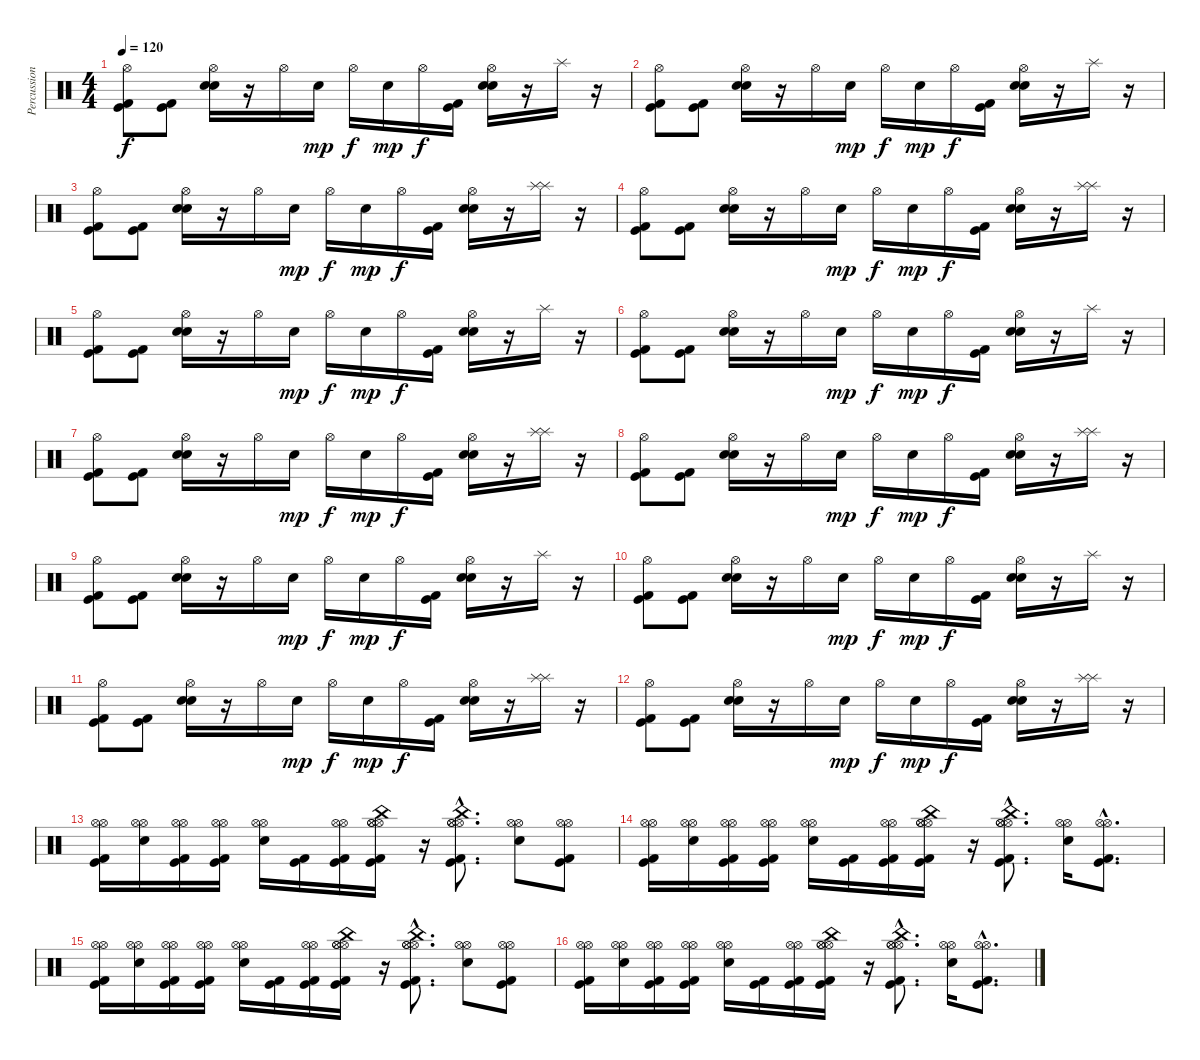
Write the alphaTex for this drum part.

\track ("Percussions" "Percussion") {instrument percussion}
\staff {score}
\articulation defaults
\ts (4 4)
\tempo 120
\clef neutral
\ks c
("Hi-Hat (open)" "Kick (hit) 2" "Kick (hit)").8{dy f} ("Kick (hit) 2" "Kick (hit)").8 ("Hi-Hat (open)" "Electric Snare (hit)" "Electric Snare (hit)").16 r.16 "Hi-Hat (open)".16 "Electric Snare (hit)".16{dy mp} "Hi-Hat (open)".16{dy f} "Electric Snare (hit)".16{dy mp} "Hi-Hat (open)".16{dy f} ("Kick (hit)" "Kick (hit) 2").16 ("Hi-Hat (open)" "Electric Snare (hit)" "Electric Snare (hit)").16 r.16 "Splash (hit)".16 r.16 |
("Hi-Hat (open)" "Kick (hit) 2" "Kick (hit)").8 ("Kick (hit) 2" "Kick (hit)").8 ("Hi-Hat (open)" "Electric Snare (hit)" "Electric Snare (hit)").16 r.16 "Hi-Hat (open)".16 "Electric Snare (hit)".16{dy mp} "Hi-Hat (open)".16{dy f} "Electric Snare (hit)".16{dy mp} "Hi-Hat (open)".16{dy f} ("Kick (hit)" "Kick (hit) 2").16 ("Hi-Hat (open)" "Electric Snare (hit)" "Electric Snare (hit)").16 r.16 "Splash (hit)".16 r.16 |
("Hi-Hat (open)" "Kick (hit) 2" "Kick (hit)").8 ("Kick (hit) 2" "Kick (hit)").8 ("Hi-Hat (open)" "Electric Snare (hit)" "Electric Snare (hit)").16 r.16 "Hi-Hat (open)".16 "Electric Snare (hit)".16{dy mp} "Hi-Hat (open)".16{dy f} "Electric Snare (hit)".16{dy mp} "Hi-Hat (open)".16{dy f} ("Kick (hit)" "Kick (hit) 2").16 ("Hi-Hat (open)" "Electric Snare (hit)" "Electric Snare (hit)").16 r.16 ("Splash (hit)" "Splash (hit)").16 r.16 |
("Hi-Hat (open)" "Kick (hit) 2" "Kick (hit)").8 ("Kick (hit) 2" "Kick (hit)").8 ("Hi-Hat (open)" "Electric Snare (hit)" "Electric Snare (hit)").16 r.16 "Hi-Hat (open)".16 "Electric Snare (hit)".16{dy mp} "Hi-Hat (open)".16{dy f} "Electric Snare (hit)".16{dy mp} "Hi-Hat (open)".16{dy f} ("Kick (hit)" "Kick (hit) 2").16 ("Hi-Hat (open)" "Electric Snare (hit)" "Electric Snare (hit)").16 r.16 ("Splash (hit)" "Splash (hit)").16 r.16 |
("Hi-Hat (open)" "Kick (hit) 2" "Kick (hit)").8 ("Kick (hit) 2" "Kick (hit)").8 ("Hi-Hat (open)" "Electric Snare (hit)" "Electric Snare (hit)").16 r.16 "Hi-Hat (open)".16 "Electric Snare (hit)".16{dy mp} "Hi-Hat (open)".16{dy f} "Electric Snare (hit)".16{dy mp} "Hi-Hat (open)".16{dy f} ("Kick (hit)" "Kick (hit) 2").16 ("Hi-Hat (open)" "Electric Snare (hit)" "Electric Snare (hit)").16 r.16 "Splash (hit)".16 r.16 |
("Hi-Hat (open)" "Kick (hit) 2" "Kick (hit)").8 ("Kick (hit) 2" "Kick (hit)").8 ("Hi-Hat (open)" "Electric Snare (hit)" "Electric Snare (hit)").16 r.16 "Hi-Hat (open)".16 "Electric Snare (hit)".16{dy mp} "Hi-Hat (open)".16{dy f} "Electric Snare (hit)".16{dy mp} "Hi-Hat (open)".16{dy f} ("Kick (hit)" "Kick (hit) 2").16 ("Hi-Hat (open)" "Electric Snare (hit)" "Electric Snare (hit)").16 r.16 "Splash (hit)".16 r.16 |
("Hi-Hat (open)" "Kick (hit) 2" "Kick (hit)").8 ("Kick (hit) 2" "Kick (hit)").8 ("Hi-Hat (open)" "Electric Snare (hit)" "Electric Snare (hit)").16 r.16 "Hi-Hat (open)".16 "Electric Snare (hit)".16{dy mp} "Hi-Hat (open)".16{dy f} "Electric Snare (hit)".16{dy mp} "Hi-Hat (open)".16{dy f} ("Kick (hit)" "Kick (hit) 2").16 ("Hi-Hat (open)" "Electric Snare (hit)" "Electric Snare (hit)").16 r.16 ("Splash (hit)" "Splash (hit)").16 r.16 |
("Hi-Hat (open)" "Kick (hit) 2" "Kick (hit)").8 ("Kick (hit) 2" "Kick (hit)").8 ("Hi-Hat (open)" "Electric Snare (hit)" "Electric Snare (hit)").16 r.16 "Hi-Hat (open)".16 "Electric Snare (hit)".16{dy mp} "Hi-Hat (open)".16{dy f} "Electric Snare (hit)".16{dy mp} "Hi-Hat (open)".16{dy f} ("Kick (hit)" "Kick (hit) 2").16 ("Hi-Hat (open)" "Electric Snare (hit)" "Electric Snare (hit)").16 r.16 ("Splash (hit)" "Splash (hit)").16 r.16 |
("Hi-Hat (open)" "Kick (hit) 2" "Kick (hit)").8 ("Kick (hit) 2" "Kick (hit)").8 ("Hi-Hat (open)" "Electric Snare (hit)" "Electric Snare (hit)").16 r.16 "Hi-Hat (open)".16 "Electric Snare (hit)".16{dy mp} "Hi-Hat (open)".16{dy f} "Electric Snare (hit)".16{dy mp} "Hi-Hat (open)".16{dy f} ("Kick (hit)" "Kick (hit) 2").16 ("Hi-Hat (open)" "Electric Snare (hit)" "Electric Snare (hit)").16 r.16 "Splash (hit)".16 r.16 |
("Hi-Hat (open)" "Kick (hit) 2" "Kick (hit)").8 ("Kick (hit) 2" "Kick (hit)").8 ("Hi-Hat (open)" "Electric Snare (hit)" "Electric Snare (hit)").16 r.16 "Hi-Hat (open)".16 "Electric Snare (hit)".16{dy mp} "Hi-Hat (open)".16{dy f} "Electric Snare (hit)".16{dy mp} "Hi-Hat (open)".16{dy f} ("Kick (hit)" "Kick (hit) 2").16 ("Hi-Hat (open)" "Electric Snare (hit)" "Electric Snare (hit)").16 r.16 "Splash (hit)".16 r.16 |
("Hi-Hat (open)" "Kick (hit) 2" "Kick (hit)").8 ("Kick (hit) 2" "Kick (hit)").8 ("Hi-Hat (open)" "Electric Snare (hit)" "Electric Snare (hit)").16 r.16 "Hi-Hat (open)".16 "Electric Snare (hit)".16{dy mp} "Hi-Hat (open)".16{dy f} "Electric Snare (hit)".16{dy mp} "Hi-Hat (open)".16{dy f} ("Kick (hit)" "Kick (hit) 2").16 ("Hi-Hat (open)" "Electric Snare (hit)" "Electric Snare (hit)").16 r.16 ("Splash (hit)" "Splash (hit)").16 r.16 |
("Hi-Hat (open)" "Kick (hit) 2" "Kick (hit)").8 ("Kick (hit) 2" "Kick (hit)").8 ("Hi-Hat (open)" "Electric Snare (hit)" "Electric Snare (hit)").16 r.16 "Hi-Hat (open)".16 "Electric Snare (hit)".16{dy mp} "Hi-Hat (open)".16{dy f} "Electric Snare (hit)".16{dy mp} "Hi-Hat (open)".16{dy f} ("Kick (hit)" "Kick (hit) 2").16 ("Hi-Hat (open)" "Electric Snare (hit)" "Electric Snare (hit)").16 r.16 ("Splash (hit)" "Splash (hit)").16 r.16 |
("Hi-Hat (open)" "Hi-Hat (open)" "Kick (hit)" "Kick (hit) 2").16 ("Hi-Hat (open)" "Hi-Hat (open)" "Electric Snare (hit)").16 ("Hi-Hat (open)" "Hi-Hat (open)" "Kick (hit)" "Kick (hit) 2").16 ("Hi-Hat (open)" "Hi-Hat (open)" "Kick (hit) 2" "Kick (hit)").16 ("Hi-Hat (open)" "Hi-Hat (open)" "Electric Snare (hit)").16 ("Kick (hit) 2" "Kick (hit)").16 ("Hi-Hat (open)" "Hi-Hat (open)" "Kick (hit)" "Kick (hit) 2").16 ("China (hit)" "Hi-Hat (open)" "Hi-Hat (open)" "Hi-Hat (open)" "Kick (hit)" "Kick (hit) 2").16 r.16 ("China (hit)"{hac} "Hi-Hat (open)"{hac} "Hi-Hat (open)"{hac} "Hi-Hat (open)"{hac} "Kick (hit) 2"{hac} "Kick (hit)"{hac}).8{d} ("Hi-Hat (open)" "Hi-Hat (open)" "Electric Snare (hit)").8 ("Hi-Hat (open)" "Hi-Hat (open)" "Kick (hit)" "Kick (hit) 2").8 |
("Hi-Hat (open)" "Hi-Hat (open)" "Kick (hit)" "Kick (hit) 2").16 ("Hi-Hat (open)" "Hi-Hat (open)" "Electric Snare (hit)").16 ("Hi-Hat (open)" "Hi-Hat (open)" "Kick (hit)" "Kick (hit) 2").16 ("Hi-Hat (open)" "Hi-Hat (open)" "Kick (hit) 2" "Kick (hit)").16 ("Hi-Hat (open)" "Hi-Hat (open)" "Electric Snare (hit)").16 ("Kick (hit) 2" "Kick (hit)").16 ("Hi-Hat (open)" "Hi-Hat (open)" "Kick (hit)" "Kick (hit) 2").16 ("China (hit)" "Hi-Hat (open)" "Hi-Hat (open)" "Hi-Hat (open)" "Kick (hit)" "Kick (hit) 2").16 r.16 ("China (hit)"{hac} "Hi-Hat (open)"{hac} "Hi-Hat (open)"{hac} "Hi-Hat (open)"{hac} "Kick (hit) 2"{hac} "Kick (hit)"{hac}).8{d} ("Hi-Hat (open)" "Hi-Hat (open)" "Electric Snare (hit)").16 ("Hi-Hat (open)"{hac} "Hi-Hat (open)"{hac} "Kick (hit)"{hac} "Kick (hit) 2"{hac}).8{d} |
("Hi-Hat (open)" "Hi-Hat (open)" "Kick (hit)" "Kick (hit) 2").16 ("Hi-Hat (open)" "Hi-Hat (open)" "Electric Snare (hit)").16 ("Hi-Hat (open)" "Hi-Hat (open)" "Kick (hit)" "Kick (hit) 2").16 ("Hi-Hat (open)" "Hi-Hat (open)" "Kick (hit) 2" "Kick (hit)").16 ("Hi-Hat (open)" "Hi-Hat (open)" "Electric Snare (hit)").16 ("Kick (hit) 2" "Kick (hit)").16 ("Hi-Hat (open)" "Hi-Hat (open)" "Kick (hit)" "Kick (hit) 2").16 ("China (hit)" "Hi-Hat (open)" "Hi-Hat (open)" "Hi-Hat (open)" "Kick (hit)" "Kick (hit) 2").16 r.16 ("China (hit)"{hac} "Hi-Hat (open)"{hac} "Hi-Hat (open)"{hac} "Hi-Hat (open)"{hac} "Kick (hit) 2"{hac} "Kick (hit)"{hac}).8{d} ("Hi-Hat (open)" "Hi-Hat (open)" "Electric Snare (hit)").8 ("Hi-Hat (open)" "Hi-Hat (open)" "Kick (hit)" "Kick (hit) 2").8 |
("Hi-Hat (open)" "Hi-Hat (open)" "Kick (hit)" "Kick (hit) 2").16 ("Hi-Hat (open)" "Hi-Hat (open)" "Electric Snare (hit)").16 ("Hi-Hat (open)" "Hi-Hat (open)" "Kick (hit)" "Kick (hit) 2").16 ("Hi-Hat (open)" "Hi-Hat (open)" "Kick (hit) 2" "Kick (hit)").16 ("Hi-Hat (open)" "Hi-Hat (open)" "Electric Snare (hit)").16 ("Kick (hit) 2" "Kick (hit)").16 ("Hi-Hat (open)" "Hi-Hat (open)" "Kick (hit)" "Kick (hit) 2").16 ("China (hit)" "Hi-Hat (open)" "Hi-Hat (open)" "Hi-Hat (open)" "Kick (hit)" "Kick (hit) 2").16 r.16 ("China (hit)"{hac} "Hi-Hat (open)"{hac} "Hi-Hat (open)"{hac} "Hi-Hat (open)"{hac} "Kick (hit) 2"{hac} "Kick (hit)"{hac}).8{d} ("Hi-Hat (open)" "Hi-Hat (open)" "Electric Snare (hit)").16 ("Hi-Hat (open)"{hac} "Hi-Hat (open)"{hac} "Kick (hit)"{hac} "Kick (hit) 2"{hac}).8{d}
